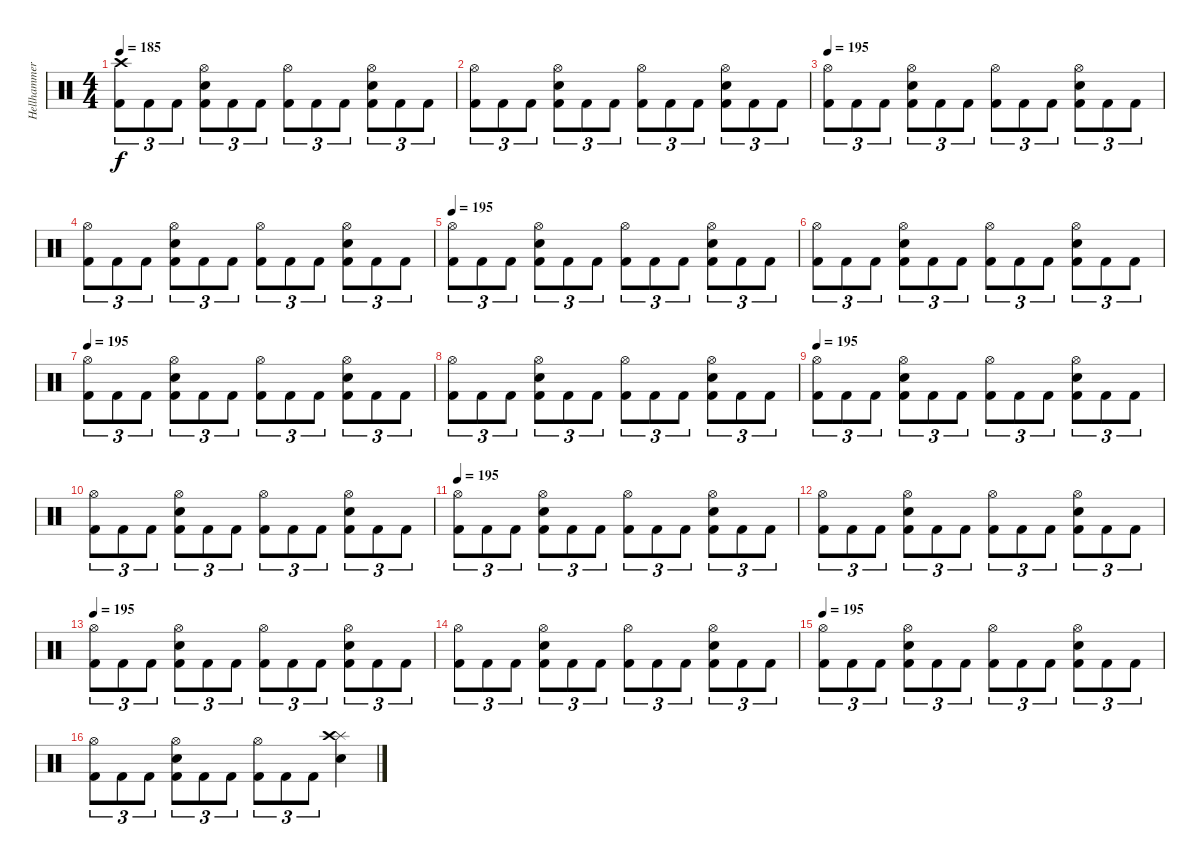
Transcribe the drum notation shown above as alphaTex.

\track ("Hellhammer" "Hellhammer") {instrument percussion}
\staff {score}
\articulation defaults
\ts (4 4)
\tempo 185
\tempo 195
\tempo 185
\clef neutral
\ks c
("Kick (hit) 2" "Crash high (hit)").8{tu (3 2) dy f} "Kick (hit) 2".8{tu (3 2)} "Kick (hit) 2".8{tu (3 2)} ("Kick (hit) 2" "Electric Snare (hit)" "Hi-Hat (open)").8{tu (3 2)} "Kick (hit) 2".8{tu (3 2)} "Kick (hit) 2".8{tu (3 2)} ("Kick (hit) 2" "Hi-Hat (open)").8{tu (3 2)} "Kick (hit) 2".8{tu (3 2)} "Kick (hit) 2".8{tu (3 2)} ("Kick (hit) 2" "Electric Snare (hit)" "Hi-Hat (open)").8{tu (3 2)} "Kick (hit) 2".8{tu (3 2)} "Kick (hit) 2".8{tu (3 2)} |
("Kick (hit) 2" "Hi-Hat (open)").8{tu (3 2)} "Kick (hit) 2".8{tu (3 2)} "Kick (hit) 2".8{tu (3 2)} ("Kick (hit) 2" "Electric Snare (hit)" "Hi-Hat (open)").8{tu (3 2)} "Kick (hit) 2".8{tu (3 2)} "Kick (hit) 2".8{tu (3 2)} ("Kick (hit) 2" "Hi-Hat (open)").8{tu (3 2)} "Kick (hit) 2".8{tu (3 2)} "Kick (hit) 2".8{tu (3 2)} ("Kick (hit) 2" "Electric Snare (hit)" "Hi-Hat (open)").8{tu (3 2)} "Kick (hit) 2".8{tu (3 2)} "Kick (hit) 2".8{tu (3 2)} |
\tempo 195
("Kick (hit) 2" "Hi-Hat (open)").8{tu (3 2)} "Kick (hit) 2".8{tu (3 2)} "Kick (hit) 2".8{tu (3 2)} ("Kick (hit) 2" "Electric Snare (hit)" "Hi-Hat (open)").8{tu (3 2)} "Kick (hit) 2".8{tu (3 2)} "Kick (hit) 2".8{tu (3 2)} ("Kick (hit) 2" "Hi-Hat (open)").8{tu (3 2)} "Kick (hit) 2".8{tu (3 2)} "Kick (hit) 2".8{tu (3 2)} ("Kick (hit) 2" "Electric Snare (hit)" "Hi-Hat (open)").8{tu (3 2)} "Kick (hit) 2".8{tu (3 2)} "Kick (hit) 2".8{tu (3 2)} |
("Kick (hit) 2" "Hi-Hat (open)").8{tu (3 2)} "Kick (hit) 2".8{tu (3 2)} "Kick (hit) 2".8{tu (3 2)} ("Kick (hit) 2" "Electric Snare (hit)" "Hi-Hat (open)").8{tu (3 2)} "Kick (hit) 2".8{tu (3 2)} "Kick (hit) 2".8{tu (3 2)} ("Kick (hit) 2" "Hi-Hat (open)").8{tu (3 2)} "Kick (hit) 2".8{tu (3 2)} "Kick (hit) 2".8{tu (3 2)} ("Kick (hit) 2" "Electric Snare (hit)" "Hi-Hat (open)").8{tu (3 2)} "Kick (hit) 2".8{tu (3 2)} "Kick (hit) 2".8{tu (3 2)} |
\tempo 195
("Kick (hit) 2" "Hi-Hat (open)").8{tu (3 2)} "Kick (hit) 2".8{tu (3 2)} "Kick (hit) 2".8{tu (3 2)} ("Kick (hit) 2" "Electric Snare (hit)" "Hi-Hat (open)").8{tu (3 2)} "Kick (hit) 2".8{tu (3 2)} "Kick (hit) 2".8{tu (3 2)} ("Kick (hit) 2" "Hi-Hat (open)").8{tu (3 2)} "Kick (hit) 2".8{tu (3 2)} "Kick (hit) 2".8{tu (3 2)} ("Kick (hit) 2" "Electric Snare (hit)" "Hi-Hat (open)").8{tu (3 2)} "Kick (hit) 2".8{tu (3 2)} "Kick (hit) 2".8{tu (3 2)} |
("Kick (hit) 2" "Hi-Hat (open)").8{tu (3 2)} "Kick (hit) 2".8{tu (3 2)} "Kick (hit) 2".8{tu (3 2)} ("Kick (hit) 2" "Electric Snare (hit)" "Hi-Hat (open)").8{tu (3 2)} "Kick (hit) 2".8{tu (3 2)} "Kick (hit) 2".8{tu (3 2)} ("Kick (hit) 2" "Hi-Hat (open)").8{tu (3 2)} "Kick (hit) 2".8{tu (3 2)} "Kick (hit) 2".8{tu (3 2)} ("Kick (hit) 2" "Electric Snare (hit)" "Hi-Hat (open)").8{tu (3 2)} "Kick (hit) 2".8{tu (3 2)} "Kick (hit) 2".8{tu (3 2)} |
\tempo 195
("Kick (hit) 2" "Hi-Hat (open)").8{tu (3 2)} "Kick (hit) 2".8{tu (3 2)} "Kick (hit) 2".8{tu (3 2)} ("Kick (hit) 2" "Electric Snare (hit)" "Hi-Hat (open)").8{tu (3 2)} "Kick (hit) 2".8{tu (3 2)} "Kick (hit) 2".8{tu (3 2)} ("Kick (hit) 2" "Hi-Hat (open)").8{tu (3 2)} "Kick (hit) 2".8{tu (3 2)} "Kick (hit) 2".8{tu (3 2)} ("Kick (hit) 2" "Electric Snare (hit)" "Hi-Hat (open)").8{tu (3 2)} "Kick (hit) 2".8{tu (3 2)} "Kick (hit) 2".8{tu (3 2)} |
("Kick (hit) 2" "Hi-Hat (open)").8{tu (3 2)} "Kick (hit) 2".8{tu (3 2)} "Kick (hit) 2".8{tu (3 2)} ("Kick (hit) 2" "Electric Snare (hit)" "Hi-Hat (open)").8{tu (3 2)} "Kick (hit) 2".8{tu (3 2)} "Kick (hit) 2".8{tu (3 2)} ("Kick (hit) 2" "Hi-Hat (open)").8{tu (3 2)} "Kick (hit) 2".8{tu (3 2)} "Kick (hit) 2".8{tu (3 2)} ("Kick (hit) 2" "Electric Snare (hit)" "Hi-Hat (open)").8{tu (3 2)} "Kick (hit) 2".8{tu (3 2)} "Kick (hit) 2".8{tu (3 2)} |
\tempo 195
("Kick (hit) 2" "Hi-Hat (open)").8{tu (3 2)} "Kick (hit) 2".8{tu (3 2)} "Kick (hit) 2".8{tu (3 2)} ("Kick (hit) 2" "Electric Snare (hit)" "Hi-Hat (open)").8{tu (3 2)} "Kick (hit) 2".8{tu (3 2)} "Kick (hit) 2".8{tu (3 2)} ("Kick (hit) 2" "Hi-Hat (open)").8{tu (3 2)} "Kick (hit) 2".8{tu (3 2)} "Kick (hit) 2".8{tu (3 2)} ("Kick (hit) 2" "Electric Snare (hit)" "Hi-Hat (open)").8{tu (3 2)} "Kick (hit) 2".8{tu (3 2)} "Kick (hit) 2".8{tu (3 2)} |
("Kick (hit) 2" "Hi-Hat (open)").8{tu (3 2)} "Kick (hit) 2".8{tu (3 2)} "Kick (hit) 2".8{tu (3 2)} ("Kick (hit) 2" "Electric Snare (hit)" "Hi-Hat (open)").8{tu (3 2)} "Kick (hit) 2".8{tu (3 2)} "Kick (hit) 2".8{tu (3 2)} ("Kick (hit) 2" "Hi-Hat (open)").8{tu (3 2)} "Kick (hit) 2".8{tu (3 2)} "Kick (hit) 2".8{tu (3 2)} ("Kick (hit) 2" "Electric Snare (hit)" "Hi-Hat (open)").8{tu (3 2)} "Kick (hit) 2".8{tu (3 2)} "Kick (hit) 2".8{tu (3 2)} |
\tempo 195
("Kick (hit) 2" "Hi-Hat (open)").8{tu (3 2)} "Kick (hit) 2".8{tu (3 2)} "Kick (hit) 2".8{tu (3 2)} ("Kick (hit) 2" "Electric Snare (hit)" "Hi-Hat (open)").8{tu (3 2)} "Kick (hit) 2".8{tu (3 2)} "Kick (hit) 2".8{tu (3 2)} ("Kick (hit) 2" "Hi-Hat (open)").8{tu (3 2)} "Kick (hit) 2".8{tu (3 2)} "Kick (hit) 2".8{tu (3 2)} ("Kick (hit) 2" "Electric Snare (hit)" "Hi-Hat (open)").8{tu (3 2)} "Kick (hit) 2".8{tu (3 2)} "Kick (hit) 2".8{tu (3 2)} |
("Kick (hit) 2" "Hi-Hat (open)").8{tu (3 2)} "Kick (hit) 2".8{tu (3 2)} "Kick (hit) 2".8{tu (3 2)} ("Kick (hit) 2" "Electric Snare (hit)" "Hi-Hat (open)").8{tu (3 2)} "Kick (hit) 2".8{tu (3 2)} "Kick (hit) 2".8{tu (3 2)} ("Kick (hit) 2" "Hi-Hat (open)").8{tu (3 2)} "Kick (hit) 2".8{tu (3 2)} "Kick (hit) 2".8{tu (3 2)} ("Kick (hit) 2" "Electric Snare (hit)" "Hi-Hat (open)").8{tu (3 2)} "Kick (hit) 2".8{tu (3 2)} "Kick (hit) 2".8{tu (3 2)} |
\tempo 195
("Kick (hit) 2" "Hi-Hat (open)").8{tu (3 2)} "Kick (hit) 2".8{tu (3 2)} "Kick (hit) 2".8{tu (3 2)} ("Kick (hit) 2" "Electric Snare (hit)" "Hi-Hat (open)").8{tu (3 2)} "Kick (hit) 2".8{tu (3 2)} "Kick (hit) 2".8{tu (3 2)} ("Kick (hit) 2" "Hi-Hat (open)").8{tu (3 2)} "Kick (hit) 2".8{tu (3 2)} "Kick (hit) 2".8{tu (3 2)} ("Kick (hit) 2" "Electric Snare (hit)" "Hi-Hat (open)").8{tu (3 2)} "Kick (hit) 2".8{tu (3 2)} "Kick (hit) 2".8{tu (3 2)} |
("Kick (hit) 2" "Hi-Hat (open)").8{tu (3 2)} "Kick (hit) 2".8{tu (3 2)} "Kick (hit) 2".8{tu (3 2)} ("Kick (hit) 2" "Electric Snare (hit)" "Hi-Hat (open)").8{tu (3 2)} "Kick (hit) 2".8{tu (3 2)} "Kick (hit) 2".8{tu (3 2)} ("Kick (hit) 2" "Hi-Hat (open)").8{tu (3 2)} "Kick (hit) 2".8{tu (3 2)} "Kick (hit) 2".8{tu (3 2)} ("Kick (hit) 2" "Electric Snare (hit)" "Hi-Hat (open)").8{tu (3 2)} "Kick (hit) 2".8{tu (3 2)} "Kick (hit) 2".8{tu (3 2)} |
\tempo 195
("Kick (hit) 2" "Hi-Hat (open)").8{tu (3 2)} "Kick (hit) 2".8{tu (3 2)} "Kick (hit) 2".8{tu (3 2)} ("Kick (hit) 2" "Electric Snare (hit)" "Hi-Hat (open)").8{tu (3 2)} "Kick (hit) 2".8{tu (3 2)} "Kick (hit) 2".8{tu (3 2)} ("Kick (hit) 2" "Hi-Hat (open)").8{tu (3 2)} "Kick (hit) 2".8{tu (3 2)} "Kick (hit) 2".8{tu (3 2)} ("Kick (hit) 2" "Electric Snare (hit)" "Hi-Hat (open)").8{tu (3 2)} "Kick (hit) 2".8{tu (3 2)} "Kick (hit) 2".8{tu (3 2)} |
("Kick (hit) 2" "Hi-Hat (open)").8{tu (3 2)} "Kick (hit) 2".8{tu (3 2)} "Kick (hit) 2".8{tu (3 2)} ("Kick (hit) 2" "Electric Snare (hit)" "Hi-Hat (open)").8{tu (3 2)} "Kick (hit) 2".8{tu (3 2)} "Kick (hit) 2".8{tu (3 2)} ("Kick (hit) 2" "Hi-Hat (open)").8{tu (3 2)} "Kick (hit) 2".8{tu (3 2)} "Kick (hit) 2".8{tu (3 2)} ("Electric Snare (hit)" "Splash (hit)" "Crash high (hit)").4
